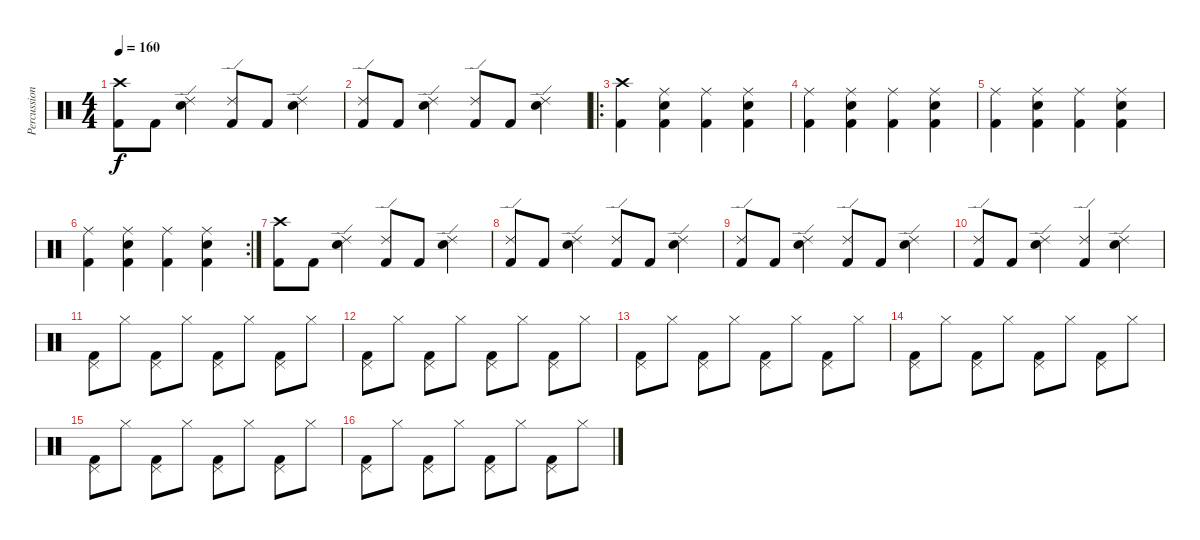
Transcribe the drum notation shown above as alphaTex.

\track ("Percussion" "Percussion") {instrument percussion}
\staff {score}
\articulation defaults
\ts (4 4)
\tempo 160
\clef neutral
\ks c
("Crash high (hit)" "Kick (hit) 2").8{dy f} "Kick (hit) 2".8 ("Ride (edge) 2" "Snare (hit) 2").4 ("Ride (edge) 2" "Kick (hit) 2").8 "Kick (hit) 2".8 ("Ride (edge) 2" "Snare (hit) 2").4 |
("Ride (edge) 2" "Kick (hit) 2").8 "Kick (hit) 2".8 ("Ride (edge) 2" "Snare (hit) 2").4 ("Ride (edge) 2" "Kick (hit) 2").8 "Kick (hit) 2".8 ("Ride (edge) 2" "Snare (hit) 2").4 |
\ro
("Crash high (hit)" "Kick (hit) 2").4 ("Ride (middle)" "Snare (hit) 2" "Kick (hit) 2").4 ("Ride (middle)" "Kick (hit) 2").4 ("Ride (middle)" "Snare (hit) 2" "Kick (hit) 2").4 |
("Ride (middle)" "Kick (hit) 2").4 ("Ride (middle)" "Snare (hit) 2" "Kick (hit) 2").4 ("Ride (middle)" "Kick (hit) 2").4 ("Ride (middle)" "Snare (hit) 2" "Kick (hit) 2").4 |
("Ride (middle)" "Kick (hit) 2").4 ("Ride (middle)" "Snare (hit) 2" "Kick (hit) 2").4 ("Ride (middle)" "Kick (hit) 2").4 ("Ride (middle)" "Snare (hit) 2" "Kick (hit) 2").4 |
\rc 2
("Ride (middle)" "Kick (hit) 2").4 ("Ride (middle)" "Snare (hit) 2" "Kick (hit) 2").4 ("Ride (middle)" "Kick (hit) 2").4 ("Ride (middle)" "Snare (hit) 2" "Kick (hit) 2").4 |
("Crash high (hit)" "Kick (hit) 2").8 "Kick (hit) 2".8 ("Ride (edge) 2" "Snare (hit) 2").4 ("Ride (edge) 2" "Kick (hit) 2").8 "Kick (hit) 2".8 ("Ride (edge) 2" "Snare (hit) 2").4 |
("Ride (edge) 2" "Kick (hit) 2").8 "Kick (hit) 2".8 ("Ride (edge) 2" "Snare (hit) 2").4 ("Ride (edge) 2" "Kick (hit) 2").8 "Kick (hit) 2".8 ("Ride (edge) 2" "Snare (hit) 2").4 |
("Ride (edge) 2" "Kick (hit) 2").8 "Kick (hit) 2".8 ("Ride (edge) 2" "Snare (hit) 2").4 ("Ride (edge) 2" "Kick (hit) 2").8 "Kick (hit) 2".8 ("Ride (edge) 2" "Snare (hit) 2").4 |
("Ride (edge) 2" "Kick (hit) 2").8 "Kick (hit) 2".8 ("Ride (edge) 2" "Snare (hit) 2").4 ("Ride (edge) 2" "Kick (hit) 2").4 ("Snare (hit) 2" "Ride (edge) 2").4 |
("Kick (hit) 2" "Pedal Hi-Hat (hit)").8 "Hi-Hat (closed)".8 ("Kick (hit) 2" "Pedal Hi-Hat (hit)").8 "Hi-Hat (closed)".8 ("Kick (hit) 2" "Pedal Hi-Hat (hit)").8 "Hi-Hat (closed)".8 ("Kick (hit) 2" "Pedal Hi-Hat (hit)").8 "Hi-Hat (closed)".8 |
("Kick (hit) 2" "Pedal Hi-Hat (hit)").8 "Hi-Hat (closed)".8 ("Kick (hit) 2" "Pedal Hi-Hat (hit)").8 "Hi-Hat (closed)".8 ("Kick (hit) 2" "Pedal Hi-Hat (hit)").8 "Hi-Hat (closed)".8 ("Kick (hit) 2" "Pedal Hi-Hat (hit)").8 "Hi-Hat (closed)".8 |
("Kick (hit) 2" "Pedal Hi-Hat (hit)").8 "Hi-Hat (closed)".8 ("Kick (hit) 2" "Pedal Hi-Hat (hit)").8 "Hi-Hat (closed)".8 ("Kick (hit) 2" "Pedal Hi-Hat (hit)").8 "Hi-Hat (closed)".8 ("Kick (hit) 2" "Pedal Hi-Hat (hit)").8 "Hi-Hat (closed)".8 |
("Kick (hit) 2" "Pedal Hi-Hat (hit)").8 "Hi-Hat (closed)".8 ("Kick (hit) 2" "Pedal Hi-Hat (hit)").8 "Hi-Hat (closed)".8 ("Kick (hit) 2" "Pedal Hi-Hat (hit)").8 "Hi-Hat (closed)".8 ("Kick (hit) 2" "Pedal Hi-Hat (hit)").8 "Hi-Hat (closed)".8 |
("Kick (hit) 2" "Pedal Hi-Hat (hit)").8 "Hi-Hat (closed)".8 ("Kick (hit) 2" "Pedal Hi-Hat (hit)").8 "Hi-Hat (closed)".8 ("Kick (hit) 2" "Pedal Hi-Hat (hit)").8 "Hi-Hat (closed)".8 ("Kick (hit) 2" "Pedal Hi-Hat (hit)").8 "Hi-Hat (closed)".8 |
("Kick (hit) 2" "Pedal Hi-Hat (hit)").8 "Hi-Hat (closed)".8 ("Kick (hit) 2" "Pedal Hi-Hat (hit)").8 "Hi-Hat (closed)".8 ("Kick (hit) 2" "Pedal Hi-Hat (hit)").8 "Hi-Hat (closed)".8 ("Kick (hit) 2" "Pedal Hi-Hat (hit)").8 "Hi-Hat (closed)".8
